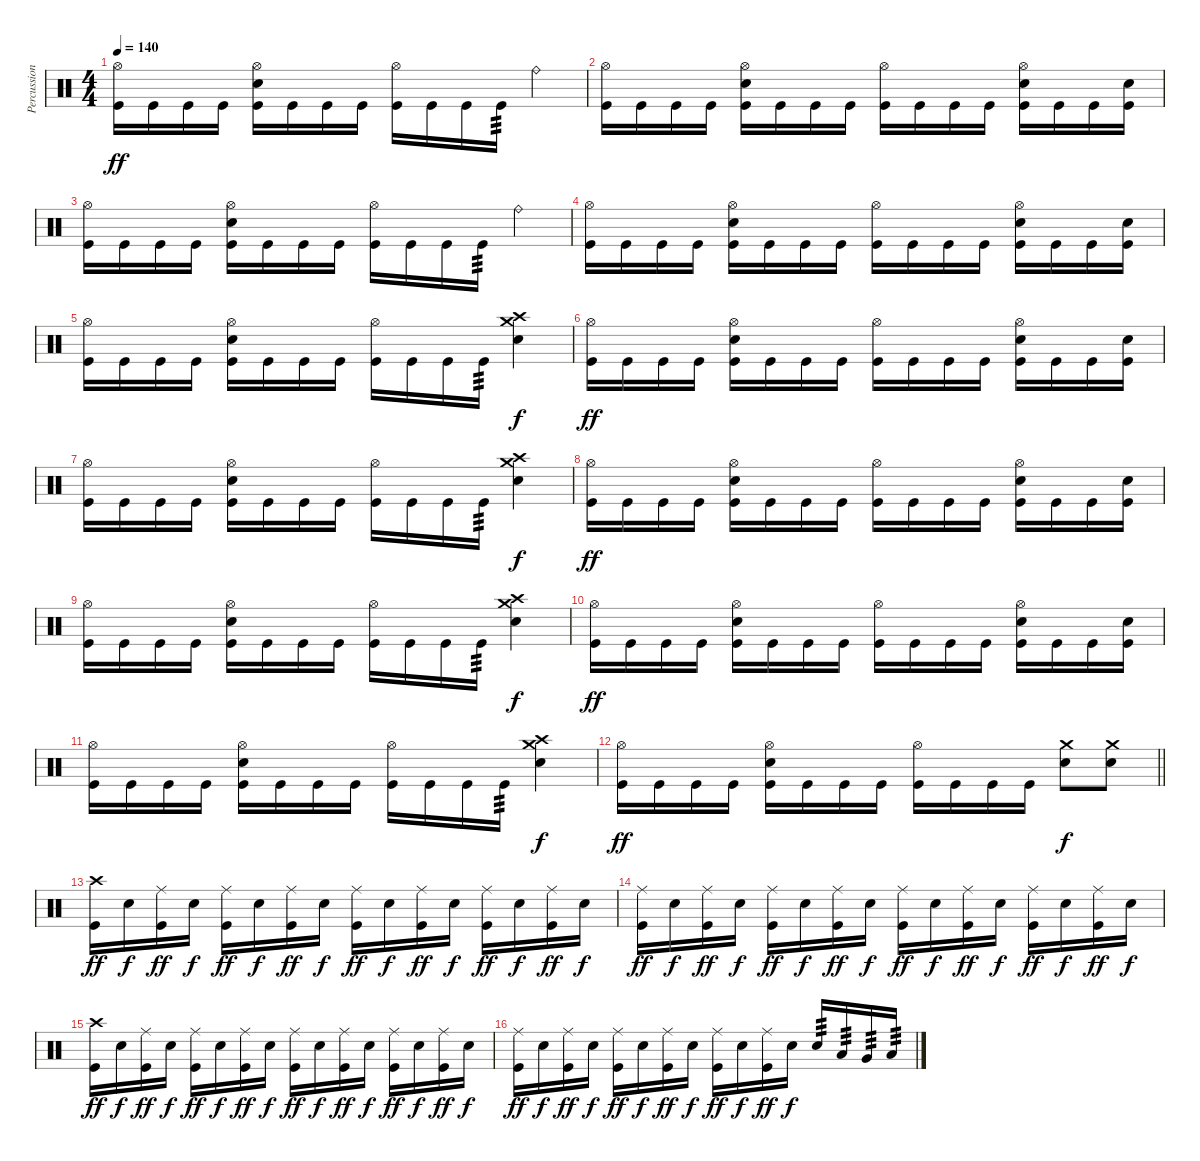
\track ("Percussion" "Percussion") {instrument percussion}
\staff {score}
\articulation defaults
\ts (4 4)
\tempo 140
\clef neutral
\ks c
("Hi-Hat (open)" "Kick (hit)").16{dy ff} "Kick (hit)".16 "Kick (hit)".16 "Kick (hit)".16 ("Hi-Hat (open)" "Electric Snare (hit)" "Kick (hit)").16 "Kick (hit)".16 "Kick (hit)".16 "Kick (hit)".16 ("Hi-Hat (open)" "Kick (hit)").16 "Kick (hit)".16 "Kick (hit)".16 "Kick (hit)".16{tp 3} "Ride (bell)".4 |
("Hi-Hat (open)" "Kick (hit)").16 "Kick (hit)".16 "Kick (hit)".16 "Kick (hit)".16 ("Hi-Hat (open)" "Electric Snare (hit)" "Kick (hit)").16 "Kick (hit)".16 "Kick (hit)".16 "Kick (hit)".16 ("Hi-Hat (open)" "Kick (hit)").16 "Kick (hit)".16 "Kick (hit)".16 "Kick (hit)".16 ("Hi-Hat (open)" "Electric Snare (hit)" "Kick (hit)").16 "Kick (hit)".16 "Kick (hit)".16 ("Electric Snare (hit)" "Kick (hit)").16 |
("Hi-Hat (open)" "Kick (hit)").16 "Kick (hit)".16 "Kick (hit)".16 "Kick (hit)".16 ("Hi-Hat (open)" "Electric Snare (hit)" "Kick (hit)").16 "Kick (hit)".16 "Kick (hit)".16 "Kick (hit)".16 ("Hi-Hat (open)" "Kick (hit)").16 "Kick (hit)".16 "Kick (hit)".16 "Kick (hit)".16{tp 3} "Ride (bell)".4 |
("Hi-Hat (open)" "Kick (hit)").16 "Kick (hit)".16 "Kick (hit)".16 "Kick (hit)".16 ("Hi-Hat (open)" "Electric Snare (hit)" "Kick (hit)").16 "Kick (hit)".16 "Kick (hit)".16 "Kick (hit)".16 ("Hi-Hat (open)" "Kick (hit)").16 "Kick (hit)".16 "Kick (hit)".16 "Kick (hit)".16 ("Hi-Hat (open)" "Electric Snare (hit)" "Kick (hit)").16 "Kick (hit)".16 "Kick (hit)".16 ("Electric Snare (hit)" "Kick (hit)").16 |
("Hi-Hat (open)" "Kick (hit)").16 "Kick (hit)".16 "Kick (hit)".16 "Kick (hit)".16 ("Hi-Hat (open)" "Electric Snare (hit)" "Kick (hit)").16 "Kick (hit)".16 "Kick (hit)".16 "Kick (hit)".16 ("Hi-Hat (open)" "Kick (hit)").16 "Kick (hit)".16 "Kick (hit)".16 "Kick (hit)".16{tp 3} ("Crash medium (hit)" "Crash high (hit)" "Electric Snare (hit)").4{dy f} |
("Hi-Hat (open)" "Kick (hit)").16{dy ff} "Kick (hit)".16 "Kick (hit)".16 "Kick (hit)".16 ("Hi-Hat (open)" "Electric Snare (hit)" "Kick (hit)").16 "Kick (hit)".16 "Kick (hit)".16 "Kick (hit)".16 ("Hi-Hat (open)" "Kick (hit)").16 "Kick (hit)".16 "Kick (hit)".16 "Kick (hit)".16 ("Hi-Hat (open)" "Electric Snare (hit)" "Kick (hit)").16 "Kick (hit)".16 "Kick (hit)".16 ("Electric Snare (hit)" "Kick (hit)").16 |
("Hi-Hat (open)" "Kick (hit)").16 "Kick (hit)".16 "Kick (hit)".16 "Kick (hit)".16 ("Hi-Hat (open)" "Electric Snare (hit)" "Kick (hit)").16 "Kick (hit)".16 "Kick (hit)".16 "Kick (hit)".16 ("Hi-Hat (open)" "Kick (hit)").16 "Kick (hit)".16 "Kick (hit)".16 "Kick (hit)".16{tp 3} ("Crash medium (hit)" "Crash high (hit)" "Electric Snare (hit)").4{dy f} |
("Hi-Hat (open)" "Kick (hit)").16{dy ff} "Kick (hit)".16 "Kick (hit)".16 "Kick (hit)".16 ("Hi-Hat (open)" "Electric Snare (hit)" "Kick (hit)").16 "Kick (hit)".16 "Kick (hit)".16 "Kick (hit)".16 ("Hi-Hat (open)" "Kick (hit)").16 "Kick (hit)".16 "Kick (hit)".16 "Kick (hit)".16 ("Hi-Hat (open)" "Electric Snare (hit)" "Kick (hit)").16 "Kick (hit)".16 "Kick (hit)".16 ("Electric Snare (hit)" "Kick (hit)").16 |
("Hi-Hat (open)" "Kick (hit)").16 "Kick (hit)".16 "Kick (hit)".16 "Kick (hit)".16 ("Hi-Hat (open)" "Electric Snare (hit)" "Kick (hit)").16 "Kick (hit)".16 "Kick (hit)".16 "Kick (hit)".16 ("Hi-Hat (open)" "Kick (hit)").16 "Kick (hit)".16 "Kick (hit)".16 "Kick (hit)".16{tp 3} ("Crash medium (hit)" "Crash high (hit)" "Electric Snare (hit)").4{dy f} |
("Hi-Hat (open)" "Kick (hit)").16{dy ff} "Kick (hit)".16 "Kick (hit)".16 "Kick (hit)".16 ("Hi-Hat (open)" "Electric Snare (hit)" "Kick (hit)").16 "Kick (hit)".16 "Kick (hit)".16 "Kick (hit)".16 ("Hi-Hat (open)" "Kick (hit)").16 "Kick (hit)".16 "Kick (hit)".16 "Kick (hit)".16 ("Hi-Hat (open)" "Electric Snare (hit)" "Kick (hit)").16 "Kick (hit)".16 "Kick (hit)".16 ("Electric Snare (hit)" "Kick (hit)").16 |
("Hi-Hat (open)" "Kick (hit)").16 "Kick (hit)".16 "Kick (hit)".16 "Kick (hit)".16 ("Hi-Hat (open)" "Electric Snare (hit)" "Kick (hit)").16 "Kick (hit)".16 "Kick (hit)".16 "Kick (hit)".16 ("Hi-Hat (open)" "Kick (hit)").16 "Kick (hit)".16 "Kick (hit)".16 "Kick (hit)".16{tp 3} ("Crash medium (hit)" "Crash high (hit)" "Electric Snare (hit)").4{dy f} |
\barLineRight lightlight
("Hi-Hat (open)" "Kick (hit)").16{dy ff} "Kick (hit)".16 "Kick (hit)".16 "Kick (hit)".16 ("Hi-Hat (open)" "Electric Snare (hit)" "Kick (hit)").16 "Kick (hit)".16 "Kick (hit)".16 "Kick (hit)".16 ("Hi-Hat (open)" "Kick (hit)").16 "Kick (hit)".16 "Kick (hit)".16 "Kick (hit)".16 ("Crash medium (hit)" "Electric Snare (hit)").8{dy f} ("Crash medium (hit)" "Electric Snare (hit)").8 |
("Crash high (hit)" "Kick (hit)").16{dy ff} "Electric Snare (hit)".16{dy f} ("Ride (middle)" "Kick (hit)").16{dy ff} "Electric Snare (hit)".16{dy f} ("Ride (middle)" "Kick (hit)").16{dy ff} "Electric Snare (hit)".16{dy f} ("Ride (middle)" "Kick (hit)").16{dy ff} "Electric Snare (hit)".16{dy f} ("Ride (middle)" "Kick (hit)").16{dy ff} "Electric Snare (hit)".16{dy f} ("Ride (middle)" "Kick (hit)").16{dy ff} "Electric Snare (hit)".16{dy f} ("Ride (middle)" "Kick (hit)").16{dy ff} "Electric Snare (hit)".16{dy f} ("Ride (middle)" "Kick (hit)").16{dy ff} "Electric Snare (hit)".16{dy f} |
("Ride (middle)" "Kick (hit)").16{dy ff} "Electric Snare (hit)".16{dy f} ("Ride (middle)" "Kick (hit)").16{dy ff} "Electric Snare (hit)".16{dy f} ("Ride (middle)" "Kick (hit)").16{dy ff} "Electric Snare (hit)".16{dy f} ("Ride (middle)" "Kick (hit)").16{dy ff} "Electric Snare (hit)".16{dy f} ("Ride (middle)" "Kick (hit)").16{dy ff} "Electric Snare (hit)".16{dy f} ("Ride (middle)" "Kick (hit)").16{dy ff} "Electric Snare (hit)".16{dy f} ("Ride (middle)" "Kick (hit)").16{dy ff} "Electric Snare (hit)".16{dy f} ("Ride (middle)" "Kick (hit)").16{dy ff} "Electric Snare (hit)".16{dy f} |
("Crash high (hit)" "Kick (hit)").16{dy ff} "Electric Snare (hit)".16{dy f} ("Ride (middle)" "Kick (hit)").16{dy ff} "Electric Snare (hit)".16{dy f} ("Ride (middle)" "Kick (hit)").16{dy ff} "Electric Snare (hit)".16{dy f} ("Ride (middle)" "Kick (hit)").16{dy ff} "Electric Snare (hit)".16{dy f} ("Ride (middle)" "Kick (hit)").16{dy ff} "Electric Snare (hit)".16{dy f} ("Ride (middle)" "Kick (hit)").16{dy ff} "Electric Snare (hit)".16{dy f} ("Ride (middle)" "Kick (hit)").16{dy ff} "Electric Snare (hit)".16{dy f} ("Ride (middle)" "Kick (hit)").16{dy ff} "Electric Snare (hit)".16{dy f} |
("Ride (middle)" "Kick (hit)").16{dy ff} "Electric Snare (hit)".16{dy f} ("Ride (middle)" "Kick (hit)").16{dy ff} "Electric Snare (hit)".16{dy f} ("Ride (middle)" "Kick (hit)").16{dy ff} "Electric Snare (hit)".16{dy f} ("Ride (middle)" "Kick (hit)").16{dy ff} "Electric Snare (hit)".16{dy f} ("Ride (middle)" "Kick (hit)").16{dy ff} "Electric Snare (hit)".16{dy f} ("Ride (middle)" "Kick (hit)").16{dy ff} "Electric Snare (hit)".16{dy f} "Electric Snare (hit)".16{tp 3} "Low Tom (hit)".16{tp 3} "Very Low Tom (hit)".16{tp 3} "Low Floor Tom (hit)".16{tp 3}
